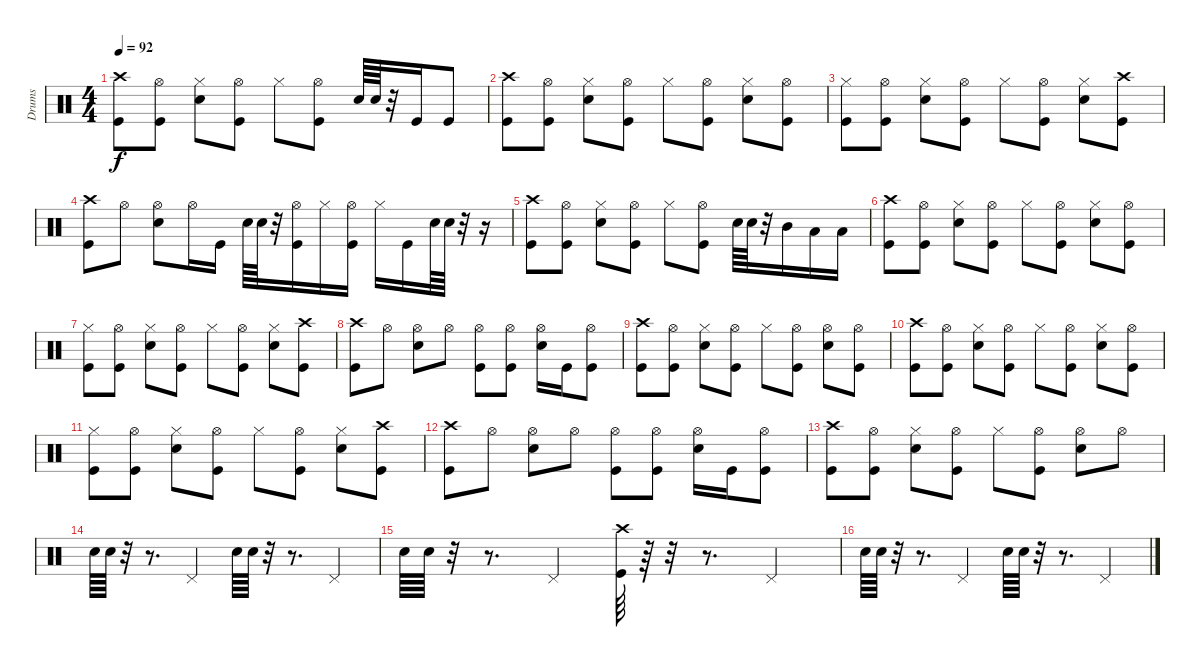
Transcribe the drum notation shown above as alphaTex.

\track ("Drums" "Drums") {instrument percussion}
\staff {score}
\articulation defaults
\ts (4 4)
\tempo 92
\clef neutral
\ks c
("Crash high (hit)" "Kick (hit)").8{dy f} ("Hi-Hat (open)" "Kick (hit)").8 ("Hi-Hat (closed)" "Snare (hit) 2").8 ("Hi-Hat (open)" "Kick (hit)").8 "Hi-Hat (closed)".8 ("Hi-Hat (open)" "Kick (hit)").8 "Snare (hit) 2".64 "Snare (hit) 2".64 r.32 "Kick (hit)".16 "Kick (hit)".8 |
("Crash high (hit)" "Kick (hit)").8 ("Hi-Hat (open)" "Kick (hit)").8 ("Hi-Hat (closed)" "Snare (hit) 2").8 ("Hi-Hat (open)" "Kick (hit)").8 "Hi-Hat (closed)".8 ("Hi-Hat (open)" "Kick (hit)").8 ("Hi-Hat (closed)" "Snare (hit) 2").8 ("Hi-Hat (open)" "Kick (hit)").8 |
("Hi-Hat (closed)" "Kick (hit)").8 ("Hi-Hat (open)" "Kick (hit)").8 ("Hi-Hat (closed)" "Snare (hit) 2").8 ("Hi-Hat (open)" "Kick (hit)").8 "Hi-Hat (closed)".8 ("Hi-Hat (open)" "Kick (hit)").8 ("Hi-Hat (closed)" "Snare (hit) 2").8 ("Crash high (hit)" "Kick (hit)").8 |
("Crash high (hit)" "Kick (hit)").8 "Hi-Hat (open)".8 ("Hi-Hat (open)" "Snare (hit) 2").8 "Hi-Hat (open)".16 "Kick (hit)".16 "Snare (hit) 2".64 "Snare (hit) 2".64 r.32 ("Hi-Hat (open)" "Kick (hit)").16 "Hi-Hat (closed)".16 ("Hi-Hat (open)" "Kick (hit)").16 "Hi-Hat (closed)".16 "Kick (hit)".16 "Snare (hit) 2".64 "Snare (hit) 2".64 r.32 r.16 |
("Crash high (hit)" "Kick (hit)").8 ("Hi-Hat (open)" "Kick (hit)").8 ("Hi-Hat (closed)" "Snare (hit) 2").8 ("Hi-Hat (open)" "Kick (hit)").8 "Hi-Hat (closed)".8 ("Hi-Hat (open)" "Kick (hit)").8 "Snare (hit) 2".64 "Snare (hit) 2".64 r.32 "Mid Tom (hit)".16 "Low Tom (hit)".16 "Low Tom (hit)".16 |
("Crash high (hit)" "Kick (hit)").8 ("Hi-Hat (open)" "Kick (hit)").8 ("Hi-Hat (closed)" "Snare (hit) 2").8 ("Hi-Hat (open)" "Kick (hit)").8 "Hi-Hat (closed)".8 ("Hi-Hat (open)" "Kick (hit)").8 ("Hi-Hat (closed)" "Snare (hit) 2").8 ("Hi-Hat (open)" "Kick (hit)").8 |
("Hi-Hat (closed)" "Kick (hit)").8 ("Hi-Hat (open)" "Kick (hit)").8 ("Hi-Hat (closed)" "Snare (hit) 2").8 ("Hi-Hat (open)" "Kick (hit)").8 "Hi-Hat (closed)".8 ("Hi-Hat (open)" "Kick (hit)").8 ("Hi-Hat (closed)" "Snare (hit) 2").8 ("Crash high (hit)" "Kick (hit)").8 |
("Crash high (hit)" "Kick (hit)").8 "Hi-Hat (open)".8 ("Hi-Hat (open)" "Snare (hit) 2").8 "Hi-Hat (open)".8 ("Hi-Hat (open)" "Kick (hit)").8 ("Hi-Hat (open)" "Kick (hit)").8 ("Hi-Hat (open)" "Snare (hit) 2").16 "Kick (hit)".16 ("Hi-Hat (open)" "Kick (hit)").8 |
("Crash high (hit)" "Kick (hit)").8 ("Hi-Hat (open)" "Kick (hit)").8 ("Hi-Hat (closed)" "Snare (hit) 2").8 ("Hi-Hat (open)" "Kick (hit)").8 "Hi-Hat (closed)".8 ("Hi-Hat (open)" "Kick (hit)").8 ("Hi-Hat (open)" "Snare (hit) 2").8 ("Hi-Hat (open)" "Kick (hit)").8 |
("Crash high (hit)" "Kick (hit)").8 ("Hi-Hat (open)" "Kick (hit)").8 ("Hi-Hat (closed)" "Snare (hit) 2").8 ("Hi-Hat (open)" "Kick (hit)").8 "Hi-Hat (closed)".8 ("Hi-Hat (open)" "Kick (hit)").8 ("Hi-Hat (closed)" "Snare (hit) 2").8 ("Hi-Hat (open)" "Kick (hit)").8 |
("Hi-Hat (closed)" "Kick (hit)").8 ("Hi-Hat (open)" "Kick (hit)").8 ("Hi-Hat (closed)" "Snare (hit) 2").8 ("Hi-Hat (open)" "Kick (hit)").8 "Hi-Hat (closed)".8 ("Hi-Hat (open)" "Kick (hit)").8 ("Hi-Hat (closed)" "Snare (hit) 2").8 ("Crash high (hit)" "Kick (hit)").8 |
("Crash high (hit)" "Kick (hit)").8 "Hi-Hat (open)".8 ("Hi-Hat (open)" "Snare (hit) 2").8 "Hi-Hat (open)".8 ("Hi-Hat (open)" "Kick (hit)").8 ("Hi-Hat (open)" "Kick (hit)").8 ("Hi-Hat (open)" "Snare (hit) 2").16 "Kick (hit)".16 ("Hi-Hat (open)" "Kick (hit)").8 |
("Crash high (hit)" "Kick (hit)").8 ("Hi-Hat (open)" "Kick (hit)").8 ("Hi-Hat (closed)" "Snare (hit) 2").8 ("Hi-Hat (open)" "Kick (hit)").8 "Hi-Hat (closed)".8 ("Hi-Hat (open)" "Kick (hit)").8 ("Hi-Hat (open)" "Snare (hit) 2").8 "Hi-Hat (open)".8 |
"Snare (hit) 2".64 "Snare (hit) 2".64 r.32 r.8{d} "Pedal Hi-Hat (hit)".4 "Snare (hit) 2".64 "Snare (hit) 2".64 r.32 r.8{d} "Pedal Hi-Hat (hit)".4 |
"Snare (hit) 2".64 "Snare (hit) 2".64 r.32 r.8{d} "Pedal Hi-Hat (hit)".4 ("Crash high (hit)" "Kick (hit)").64 r.64 r.32 r.8{d} "Pedal Hi-Hat (hit)".4 |
"Snare (hit) 2".64 "Snare (hit) 2".64 r.32 r.8{d} "Pedal Hi-Hat (hit)".4 "Snare (hit) 2".64 "Snare (hit) 2".64 r.32 r.8{d} "Pedal Hi-Hat (hit)".4
